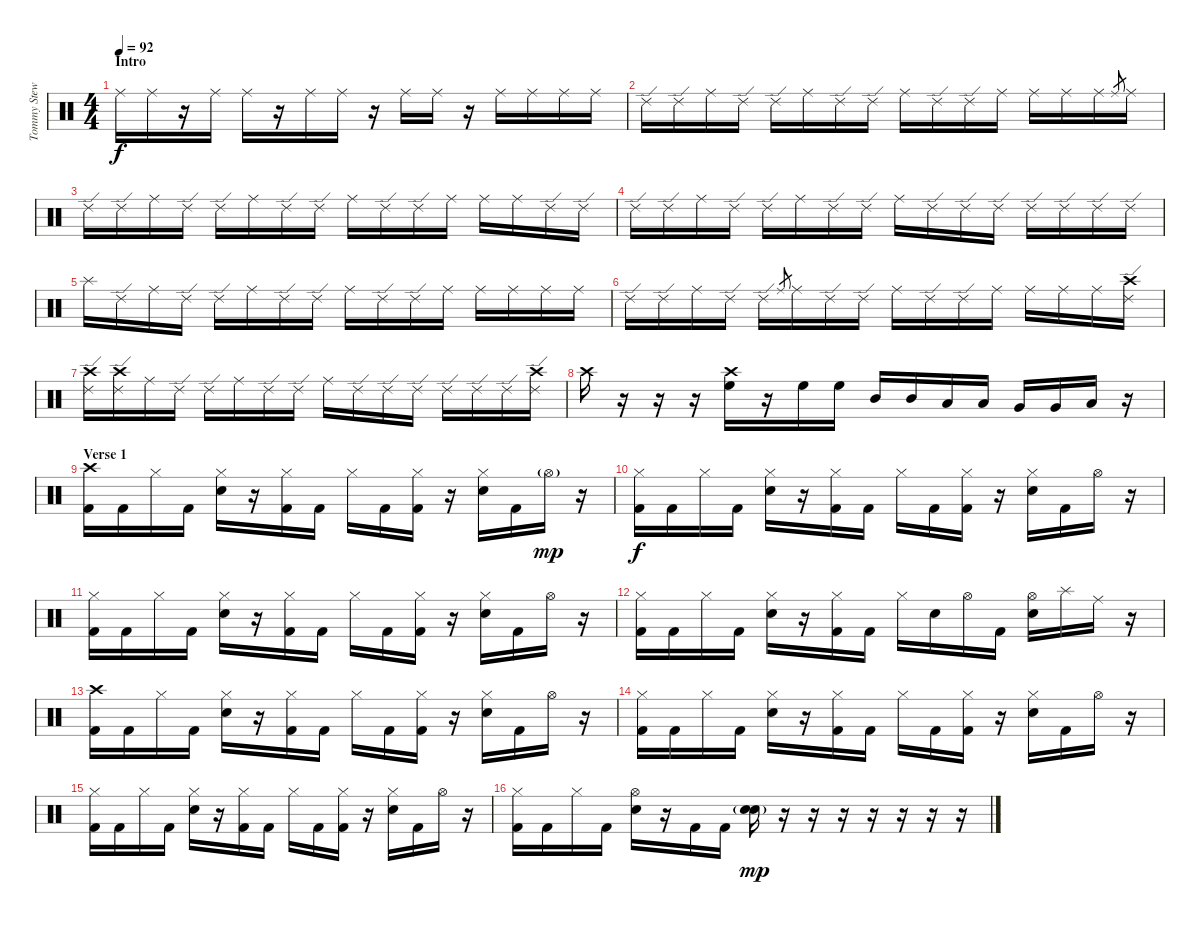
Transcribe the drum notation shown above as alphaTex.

\track ("Tommy Stewart - Drums" "Tommy Stew") {instrument percussion}
\staff {score}
\articulation defaults
\ts (4 4)
\section ("" "Intro")
\tempo 92
\clef neutral
\ks c "Ride (middle)".16{dy f} "Ride (middle)".16
r.16 "Ride (middle)".16 "Ride (middle)".16 r.16 "Ride (middle)".16 "Ride (middle)".16 r.16 "Ride (middle)".16 "Ride (middle)".16 r.16 "Ride (middle)".16 "Ride (middle)".16 "Ride (middle)".16 "Ride (middle)".16 |
"Ride (edge) 2".16 "Ride (edge) 2".16 "Ride (middle)".16 "Ride (edge) 2".16 "Ride (edge) 2".16 "Ride (middle)".16 "Ride (edge) 2".16 "Ride (edge) 2".16 "Ride (middle)".16 "Ride (edge) 2".16 "Ride (edge) 2".16 "Ride (middle)".16 "Ride (middle)".16 "Ride (middle)".16 "Ride (middle)".16 "Ride (middle)".8{gr} "Ride (middle)".16 |
"Ride (edge) 2".16 "Ride (edge) 2".16 "Ride (middle)".16 "Ride (edge) 2".16 "Ride (edge) 2".16 "Ride (middle)".16 "Ride (edge) 2".16 "Ride (edge) 2".16 "Ride (middle)".16 "Ride (edge) 2".16 "Ride (edge) 2".16 "Ride (middle)".16 "Ride (middle)".16 "Ride (middle)".16 "Ride (edge) 2".16 "Ride (edge) 2".16 |
"Ride (edge) 2".16 "Ride (edge) 2".16 "Ride (middle)".16 "Ride (edge) 2".16 "Ride (edge) 2".16 "Ride (middle)".16 "Ride (edge) 2".16 "Ride (edge) 2".16 "Ride (middle)".16 "Ride (edge) 2".16 "Ride (edge) 2".16 "Ride (edge) 2".16 "Ride (edge) 2".16 "Ride (edge) 2".16 "Ride (edge) 2".16 "Ride (edge) 2".16 |
"Splash (hit)".16 "Ride (edge) 2".16 "Ride (middle)".16 "Ride (edge) 2".16 "Ride (edge) 2".16 "Ride (middle)".16 "Ride (edge) 2".16 "Ride (edge) 2".16 "Ride (middle)".16 "Ride (edge) 2".16 "Ride (edge) 2".16 "Ride (middle)".16 "Ride (middle)".16 "Ride (middle)".16 "Ride (middle)".16 "Ride (middle)".16 |
"Ride (edge) 2".16 "Ride (edge) 2".16 "Ride (middle)".16 "Ride (edge) 2".16 "Ride (edge) 2".16 "Ride (middle)".8{gr} "Ride (middle)".16 "Ride (edge) 2".16 "Ride (edge) 2".16 "Ride (middle)".16 "Ride (edge) 2".16 "Ride (edge) 2".16 "Ride (middle)".16 "Ride (middle)".16 "Ride (middle)".16 "Ride (middle)".16 ("Crash high (hit)" "Ride (edge) 2").16 |
("Crash high (hit)" "Ride (edge) 2").16 ("Crash high (hit)" "Ride (edge) 2").16 "Ride (middle)".16 "Ride (edge) 2".16 "Ride (edge) 2".16 "Ride (middle)".16 "Ride (edge) 2".16 "Ride (edge) 2".16 "Ride (middle)".16 "Ride (edge) 2".16 "Ride (edge) 2".16 "Ride (edge) 2".16 "Ride (edge) 2".16 "Ride (edge) 2".16 "Ride (edge) 2".16 ("Crash high (hit)" "Ride (edge) 2").16 |
"Crash high (hit)".16 r.16 r.16 r.16 ("Crash high (hit)" "High Floor Tom (hit)").16 r.16 "High Floor Tom (hit)".16 "High Floor Tom (hit)".16 "Mid Tom (hit)".16 "Mid Tom (hit)".16 "Low Tom (hit)".16 "Low Tom (hit)".16 "Very Low Tom (hit)".16 "Very Low Tom (hit)".16 "Low Floor Tom (hit)".16 r.16 |
\section ("" "Verse 1")
("Crash high (hit)" "Kick (hit) 2").16 "Kick (hit) 2".16 "Hi-Hat (closed)".16 "Kick (hit) 2".16 ("Hi-Hat (closed)" "Snare (hit) 2").16 r.16 ("Hi-Hat (closed)" "Kick (hit) 2").16 "Kick (hit) 2".16 "Hi-Hat (closed)".16 "Kick (hit) 2".16 ("Hi-Hat (closed)" "Kick (hit) 2").16 r.16 ("Hi-Hat (closed)" "Snare (hit) 2").16 "Kick (hit) 2".16 "Hi-Hat (open)"{g}.16{dy mp} r.16 |
("Hi-Hat (closed)" "Kick (hit) 2").16{dy f} "Kick (hit) 2".16 "Hi-Hat (closed)".16 "Kick (hit) 2".16 ("Hi-Hat (closed)" "Snare (hit) 2").16 r.16 ("Hi-Hat (closed)" "Kick (hit) 2").16 "Kick (hit) 2".16 "Hi-Hat (closed)".16 "Kick (hit) 2".16 ("Hi-Hat (closed)" "Kick (hit) 2").16 r.16 ("Hi-Hat (closed)" "Snare (hit) 2").16 "Kick (hit) 2".16 "Hi-Hat (open)".16 r.16 |
("Hi-Hat (closed)" "Kick (hit) 2").16 "Kick (hit) 2".16 "Hi-Hat (closed)".16 "Kick (hit) 2".16 ("Hi-Hat (closed)" "Snare (hit) 2").16 r.16 ("Hi-Hat (closed)" "Kick (hit) 2").16 "Kick (hit) 2".16 "Hi-Hat (closed)".16 "Kick (hit) 2".16 ("Hi-Hat (closed)" "Kick (hit) 2").16 r.16 ("Hi-Hat (closed)" "Snare (hit) 2").16 "Kick (hit) 2".16 "Hi-Hat (open)".16 r.16 |
("Hi-Hat (closed)" "Kick (hit) 2").16 "Kick (hit) 2".16 "Hi-Hat (closed)".16 "Kick (hit) 2".16 ("Hi-Hat (closed)" "Snare (hit) 2").16 r.16 ("Hi-Hat (closed)" "Kick (hit) 2").16 "Kick (hit) 2".16 "Hi-Hat (closed)".16 "Snare (hit) 2".16 "Hi-Hat (open)".16 "Kick (hit) 2".16 ("Hi-Hat (open)" "Snare (hit) 2").16 "Splash (hit)".16 "Ride (middle)".16 r.16 |
("Crash high (hit)" "Kick (hit) 2").16 "Kick (hit) 2".16 "Hi-Hat (closed)".16 "Kick (hit) 2".16 ("Hi-Hat (closed)" "Snare (hit) 2").16 r.16 ("Hi-Hat (closed)" "Kick (hit) 2").16 "Kick (hit) 2".16 "Hi-Hat (closed)".16 "Kick (hit) 2".16 ("Hi-Hat (closed)" "Kick (hit) 2").16 r.16 ("Hi-Hat (closed)" "Snare (hit) 2").16 "Kick (hit) 2".16 "Hi-Hat (open)".16 r.16 |
("Hi-Hat (closed)" "Kick (hit) 2").16 "Kick (hit) 2".16 "Hi-Hat (closed)".16 "Kick (hit) 2".16 ("Hi-Hat (closed)" "Snare (hit) 2").16 r.16 ("Hi-Hat (closed)" "Kick (hit) 2").16 "Kick (hit) 2".16 "Hi-Hat (closed)".16 "Kick (hit) 2".16 ("Hi-Hat (closed)" "Kick (hit) 2").16 r.16 ("Hi-Hat (closed)" "Snare (hit) 2").16 "Kick (hit) 2".16 "Hi-Hat (open)".16 r.16 |
("Hi-Hat (closed)" "Kick (hit) 2").16 "Kick (hit) 2".16 "Hi-Hat (closed)".16 "Kick (hit) 2".16 ("Hi-Hat (closed)" "Snare (hit) 2").16 r.16 ("Hi-Hat (closed)" "Kick (hit) 2").16 "Kick (hit) 2".16 "Hi-Hat (closed)".16 "Kick (hit) 2".16 ("Hi-Hat (closed)" "Kick (hit) 2").16 r.16 ("Hi-Hat (closed)" "Snare (hit) 2").16 "Kick (hit) 2".16 "Hi-Hat (open)".16 r.16 |
("Hi-Hat (closed)" "Kick (hit) 2").16 "Kick (hit) 2".16 "Hi-Hat (closed)".16 "Kick (hit) 2".16 ("Hi-Hat (open)" "Snare (hit) 2").16 r.16 "Kick (hit) 2".16 "Kick (hit) 2".16 ("Snare (hit) 2"{g} "Snare (hit) 2").16{dy mp} r.16 r.16 r.16 r.16 r.16 r.16 r.16
